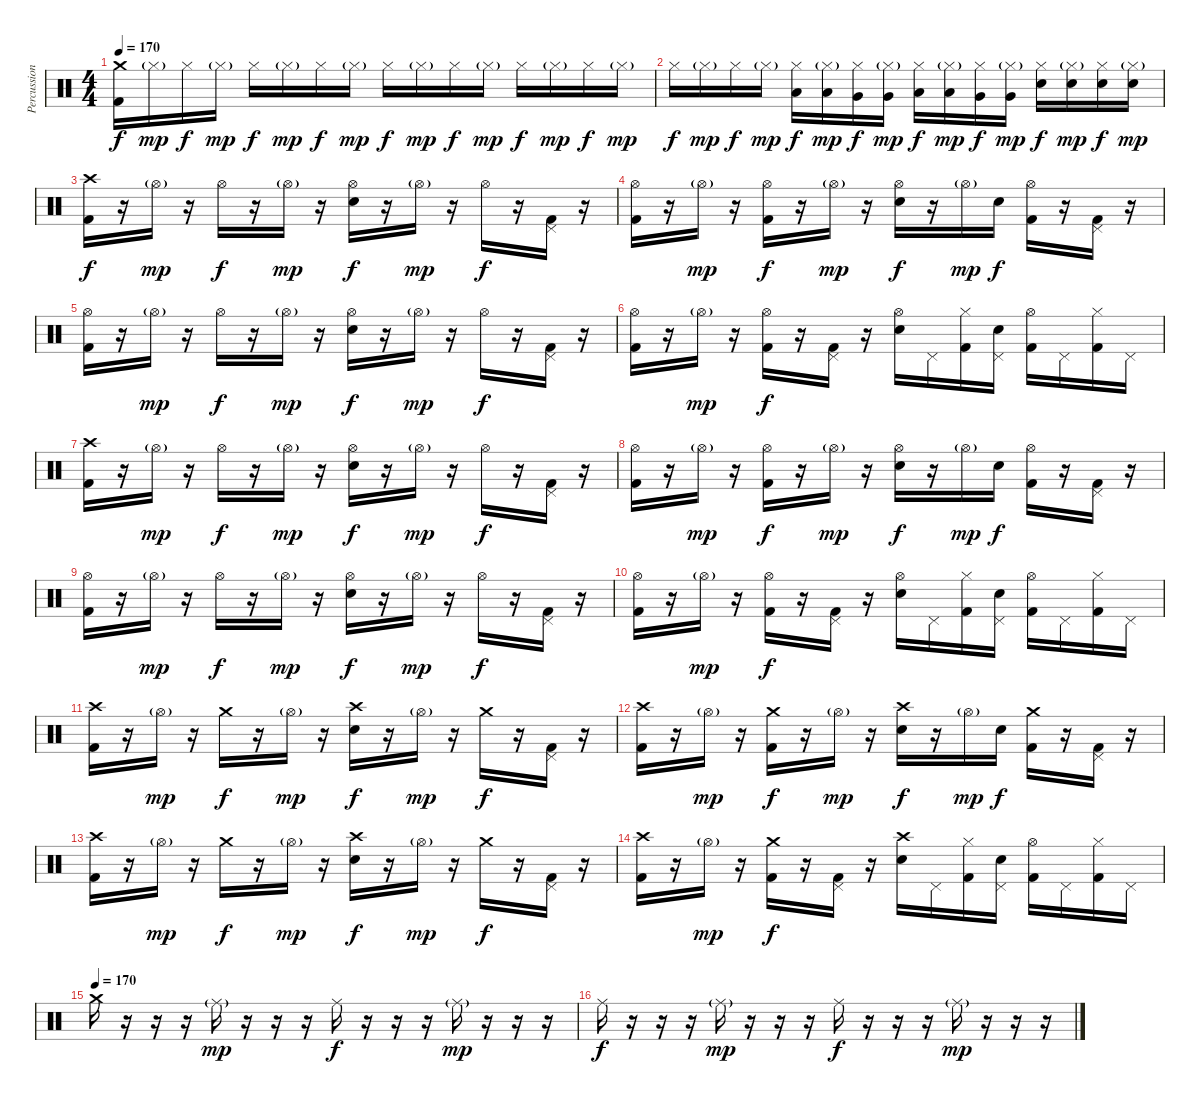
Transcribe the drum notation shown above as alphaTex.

\track ("Percussion" "Percussion") {instrument percussion}
\staff {score}
\articulation defaults
\ts (4 4)
\tempo 170
\clef neutral
\ks c
("Crash medium (hit)" "Kick (hit) 2").16{dy f} "Hi-Hat (closed)"{g}.16{dy mp} "Hi-Hat (closed)".16{dy f} "Hi-Hat (closed)"{g}.16{dy mp} "Hi-Hat (closed)".16{dy f} "Hi-Hat (closed)"{g}.16{dy mp} "Hi-Hat (closed)".16{dy f} "Hi-Hat (closed)"{g}.16{dy mp} "Hi-Hat (closed)".16{dy f} "Hi-Hat (closed)"{g}.16{dy mp} "Hi-Hat (closed)".16{dy f} "Hi-Hat (closed)"{g}.16{dy mp} "Hi-Hat (closed)".16{dy f} "Hi-Hat (closed)"{g}.16{dy mp} "Hi-Hat (closed)".16{dy f} "Hi-Hat (closed)"{g}.16{dy mp} |
"Hi-Hat (closed)".16{dy f} "Hi-Hat (closed)"{g}.16{dy mp} "Hi-Hat (closed)".16{dy f} "Hi-Hat (closed)"{g}.16{dy mp} ("Hi-Hat (closed)" "Low Tom (hit)").16{dy f} ("Hi-Hat (closed)"{g} "Low Tom (hit)").16{dy mp} ("Hi-Hat (closed)" "Very Low Tom (hit)").16{dy f} ("Hi-Hat (closed)"{g} "Very Low Tom (hit)").16{dy mp} ("Hi-Hat (closed)" "Low Floor Tom (hit)").16{dy f} ("Hi-Hat (closed)"{g} "Low Floor Tom (hit)").16{dy mp} ("Hi-Hat (closed)" "Very Low Tom (hit)").16{dy f} ("Hi-Hat (closed)"{g} "Very Low Tom (hit)").16{dy mp} ("Hi-Hat (closed)" "Electric Snare (hit)").16{dy f} ("Hi-Hat (closed)"{g} "Electric Snare (hit)").16{dy mp} ("Hi-Hat (closed)" "Electric Snare (hit)").16{dy f} ("Hi-Hat (closed)"{g} "Electric Snare (hit)").16{dy mp} |
("Crash high (hit)" "Kick (hit) 2").16{dy f} r.16 "Hi-Hat (open)"{g}.16{dy mp} r.16 "Hi-Hat (open)".16{dy f} r.16 "Hi-Hat (open)"{g}.16{dy mp} r.16 ("Hi-Hat (open)" "Electric Snare (hit)").16{dy f} r.16 "Hi-Hat (open)"{g}.16{dy mp} r.16 "Hi-Hat (open)".16{dy f} r.16 ("Pedal Hi-Hat (hit)" "Kick (hit) 2").16 r.16 |
("Hi-Hat (open)" "Kick (hit) 2").16 r.16 "Hi-Hat (open)"{g}.16{dy mp} r.16 ("Hi-Hat (open)" "Kick (hit) 2").16{dy f} r.16 "Hi-Hat (open)"{g}.16{dy mp} r.16 ("Hi-Hat (open)" "Electric Snare (hit)").16{dy f} r.16 "Hi-Hat (open)"{g}.16{dy mp} "Electric Snare (hit)".16{dy f} ("Hi-Hat (open)" "Kick (hit) 2").16 r.16 ("Pedal Hi-Hat (hit)" "Kick (hit) 2").16 r.16 |
("Hi-Hat (open)" "Kick (hit) 2").16 r.16 "Hi-Hat (open)"{g}.16{dy mp} r.16 "Hi-Hat (open)".16{dy f} r.16 "Hi-Hat (open)"{g}.16{dy mp} r.16 ("Hi-Hat (open)" "Electric Snare (hit)").16{dy f} r.16 "Hi-Hat (open)"{g}.16{dy mp} r.16 "Hi-Hat (open)".16{dy f} r.16 ("Pedal Hi-Hat (hit)" "Kick (hit) 2").16 r.16 |
("Hi-Hat (open)" "Kick (hit) 2").16 r.16 "Hi-Hat (open)"{g}.16{dy mp} r.16 ("Hi-Hat (open)" "Kick (hit) 2").16{dy f} r.16 ("Pedal Hi-Hat (hit)" "Kick (hit) 2").16 r.16 ("Hi-Hat (open)" "Electric Snare (hit)").16 "Pedal Hi-Hat (hit)".16 ("Hi-Hat (closed)" "Kick (hit) 2").16 ("Pedal Hi-Hat (hit)" "Electric Snare (hit)").16 ("Hi-Hat (open)" "Kick (hit) 2").16 "Pedal Hi-Hat (hit)".16 ("Hi-Hat (closed)" "Kick (hit) 2").16 "Pedal Hi-Hat (hit)".16 |
("Crash high (hit)" "Kick (hit) 2").16 r.16 "Hi-Hat (open)"{g}.16{dy mp} r.16 "Hi-Hat (open)".16{dy f} r.16 "Hi-Hat (open)"{g}.16{dy mp} r.16 ("Hi-Hat (open)" "Electric Snare (hit)").16{dy f} r.16 "Hi-Hat (open)"{g}.16{dy mp} r.16 "Hi-Hat (open)".16{dy f} r.16 ("Pedal Hi-Hat (hit)" "Kick (hit) 2").16 r.16 |
("Hi-Hat (open)" "Kick (hit) 2").16 r.16 "Hi-Hat (open)"{g}.16{dy mp} r.16 ("Hi-Hat (open)" "Kick (hit) 2").16{dy f} r.16 "Hi-Hat (open)"{g}.16{dy mp} r.16 ("Hi-Hat (open)" "Electric Snare (hit)").16{dy f} r.16 "Hi-Hat (open)"{g}.16{dy mp} "Electric Snare (hit)".16{dy f} ("Hi-Hat (open)" "Kick (hit) 2").16 r.16 ("Pedal Hi-Hat (hit)" "Kick (hit) 2").16 r.16 |
("Hi-Hat (open)" "Kick (hit) 2").16 r.16 "Hi-Hat (open)"{g}.16{dy mp} r.16 "Hi-Hat (open)".16{dy f} r.16 "Hi-Hat (open)"{g}.16{dy mp} r.16 ("Hi-Hat (open)" "Electric Snare (hit)").16{dy f} r.16 "Hi-Hat (open)"{g}.16{dy mp} r.16 "Hi-Hat (open)".16{dy f} r.16 ("Pedal Hi-Hat (hit)" "Kick (hit) 2").16 r.16 |
("Hi-Hat (open)" "Kick (hit) 2").16 r.16 "Hi-Hat (open)"{g}.16{dy mp} r.16 ("Hi-Hat (open)" "Kick (hit) 2").16{dy f} r.16 ("Pedal Hi-Hat (hit)" "Kick (hit) 2").16 r.16 ("Hi-Hat (open)" "Electric Snare (hit)").16 "Pedal Hi-Hat (hit)".16 ("Hi-Hat (closed)" "Kick (hit) 2").16 ("Pedal Hi-Hat (hit)" "Electric Snare (hit)").16 ("Hi-Hat (open)" "Kick (hit) 2").16 "Pedal Hi-Hat (hit)".16 ("Hi-Hat (closed)" "Kick (hit) 2").16 "Pedal Hi-Hat (hit)".16 |
("Crash high (hit)" "Kick (hit) 2").16 r.16 "Hi-Hat (open)"{g}.16{dy mp} r.16 "Crash medium (hit)".16{dy f} r.16 "Hi-Hat (open)"{g}.16{dy mp} r.16 ("Crash high (hit)" "Electric Snare (hit)").16{dy f} r.16 "Hi-Hat (open)"{g}.16{dy mp} r.16 "Crash medium (hit)".16{dy f} r.16 ("Pedal Hi-Hat (hit)" "Kick (hit) 2").16 r.16 |
("Crash high (hit)" "Kick (hit) 2").16 r.16 "Hi-Hat (open)"{g}.16{dy mp} r.16 ("Crash medium (hit)" "Kick (hit) 2").16{dy f} r.16 "Hi-Hat (open)"{g}.16{dy mp} r.16 ("Crash high (hit)" "Electric Snare (hit)").16{dy f} r.16 "Hi-Hat (open)"{g}.16{dy mp} "Electric Snare (hit)".16{dy f} ("Crash medium (hit)" "Kick (hit) 2").16 r.16 ("Pedal Hi-Hat (hit)" "Kick (hit) 2").16 r.16 |
("Crash high (hit)" "Kick (hit) 2").16 r.16 "Hi-Hat (open)"{g}.16{dy mp} r.16 "Crash medium (hit)".16{dy f} r.16 "Hi-Hat (open)"{g}.16{dy mp} r.16 ("Crash high (hit)" "Electric Snare (hit)").16{dy f} r.16 "Hi-Hat (open)"{g}.16{dy mp} r.16 "Crash medium (hit)".16{dy f} r.16 ("Pedal Hi-Hat (hit)" "Kick (hit) 2").16 r.16 |
("Crash high (hit)" "Kick (hit) 2").16 r.16 "Hi-Hat (open)"{g}.16{dy mp} r.16 ("Crash medium (hit)" "Kick (hit) 2").16{dy f} r.16 ("Pedal Hi-Hat (hit)" "Kick (hit) 2").16 r.16 ("Crash high (hit)" "Electric Snare (hit)").16 "Pedal Hi-Hat (hit)".16 ("Hi-Hat (closed)" "Kick (hit) 2").16 ("Pedal Hi-Hat (hit)" "Electric Snare (hit)").16 ("Hi-Hat (open)" "Kick (hit) 2").16 "Pedal Hi-Hat (hit)".16 ("Hi-Hat (closed)" "Kick (hit) 2").16 "Pedal Hi-Hat (hit)".16 |
\tempo (170)
"Crash medium (hit)".16 r.16 r.16 r.16 "Ride (middle)"{g}.16{dy mp} r.16 r.16 r.16 "Ride (middle)".16{dy f} r.16 r.16 r.16 "Ride (middle)"{g}.16{dy mp} r.16 r.16 r.16 |
"Ride (middle)".16{dy f} r.16 r.16 r.16 "Ride (middle)"{g}.16{dy mp} r.16 r.16 r.16 "Ride (middle)".16{dy f} r.16 r.16 r.16 "Ride (middle)"{g}.16{dy mp} r.16 r.16 r.16
